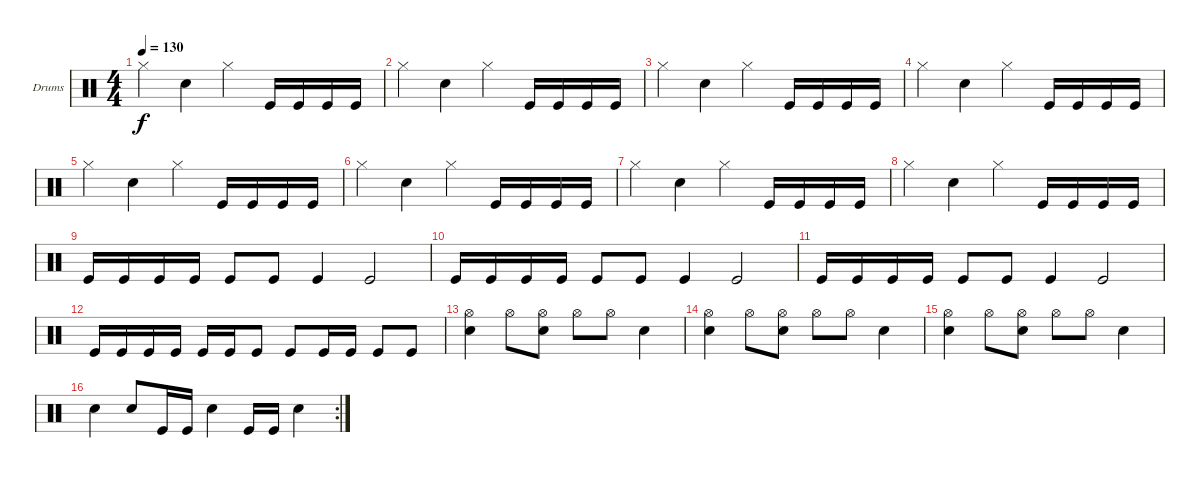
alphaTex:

\defaultSystemsLayout 4
\bracketExtendMode groupsimilarinstruments
\firstSystemTrackNameOrientation horizontal
\otherSystemsTrackNameOrientation horizontal
\track ("Drumkit" "Drums") {instrument percussion}
\staff {score}
\articulation defaults
\ts (4 4)
\tempo 130
\clef neutral
\scale
0.333333
\ks c "Hi-Hat (closed)".4{dy f} "Snare (hit) 2".4 "Hi-Hat (closed)".4 "Kick (hit)".16 "Kick (hit)".16 "Kick (hit)".16 "Kick (hit)".16
|
\scale
0.333333 "Hi-Hat (closed)".4 "Snare (hit) 2".4 "Hi-Hat (closed)".4 "Kick (hit)".16 "Kick (hit)".16 "Kick (hit)".16 "Kick (hit)".16 |
\scale
0.333333 "Hi-Hat (closed)".4 "Snare (hit) 2".4 "Hi-Hat (closed)".4 "Kick (hit)".16 "Kick (hit)".16 "Kick (hit)".16 "Kick (hit)".16 |
\scale
0.333333 "Hi-Hat (closed)".4 "Snare (hit) 2".4 "Hi-Hat (closed)".4 "Kick (hit)".16 "Kick (hit)".16 "Kick (hit)".16 "Kick (hit)".16 |
\scale
0.333333 "Hi-Hat (closed)".4 "Snare (hit) 2".4 "Hi-Hat (closed)".4 "Kick (hit)".16 "Kick (hit)".16 "Kick (hit)".16 "Kick (hit)".16 |
\scale
0.333333 "Hi-Hat (closed)".4 "Snare (hit) 2".4 "Hi-Hat (closed)".4 "Kick (hit)".16 "Kick (hit)".16 "Kick (hit)".16 "Kick (hit)".16 |
\scale
0.333333 "Hi-Hat (closed)".4 "Snare (hit) 2".4 "Hi-Hat (closed)".4 "Kick (hit)".16 "Kick (hit)".16 "Kick (hit)".16 "Kick (hit)".16 |
\scale
0.333333 "Hi-Hat (closed)".4 "Snare (hit) 2".4 "Hi-Hat (closed)".4 "Kick (hit)".16 "Kick (hit)".16 "Kick (hit)".16 "Kick (hit)".16 |
\scale
0.333333 "Kick (hit)".16 "Kick (hit)".16 "Kick (hit)".16 "Kick (hit)".16 "Kick (hit)".8 "Kick (hit)".8 "Kick (hit)".4 "Kick (hit)".2 |
\scale
0.333333 "Kick (hit)".16 "Kick (hit)".16 "Kick (hit)".16 "Kick (hit)".16 "Kick (hit)".8 "Kick (hit)".8 "Kick (hit)".4 "Kick (hit)".2 |
\scale
0.333333 "Kick (hit)".16 "Kick (hit)".16 "Kick (hit)".16 "Kick (hit)".16 "Kick (hit)".8 "Kick (hit)".8 "Kick (hit)".4 "Kick (hit)".2 |
\scale
0.333333 "Kick (hit)".16 "Kick (hit)".16 "Kick (hit)".16 "Kick (hit)".16 "Kick (hit)".16 "Kick (hit)".16 "Kick (hit)".8 "Kick (hit)".8 "Kick (hit)".16 "Kick (hit)".16 "Kick (hit)".8 "Kick (hit)".8 |
\scale
0.333333 ("Snare (hit) 2" "Hi-Hat (open)").4 "Hi-Hat (open)".8 ("Hi-Hat (open)" "Snare (hit) 2").8 "Hi-Hat (open)".8 "Hi-Hat (open)".8 "Snare (hit) 2".4 |
\scale
0.333333 ("Snare (hit) 2" "Hi-Hat (open)").4 "Hi-Hat (open)".8 ("Hi-Hat (open)" "Snare (hit) 2").8 "Hi-Hat (open)".8 "Hi-Hat (open)".8 "Snare (hit) 2".4 |
\scale
0.322034 ("Snare (hit) 2" "Hi-Hat (open)").4 "Hi-Hat (open)".8 ("Hi-Hat (open)" "Snare (hit) 2").8 "Hi-Hat (open)".8 "Hi-Hat (open)".8 "Snare (hit) 2".4 |
\rc 2
\scale
0.355932 "Snare (hit) 2".4 "Snare (hit) 2".8 "Kick (hit)".16 "Kick (hit)".16 "Snare (hit) 2".4 "Kick (hit)".16 "Kick (hit)".16 "Snare (hit) 2".4
